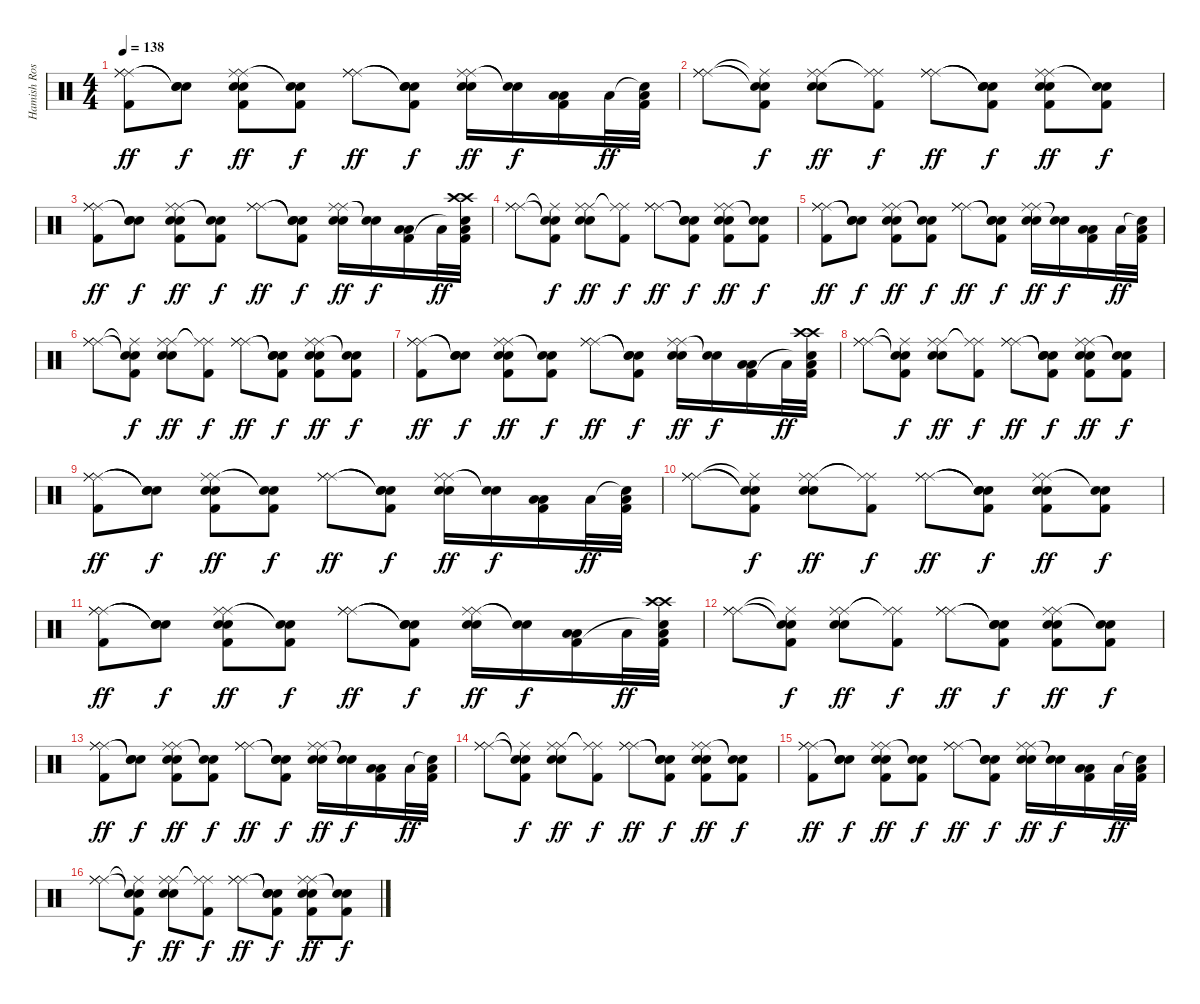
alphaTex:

\track ("Hamish Rosser" "Hamish Ros") {instrument percussion}
\staff {score}
\articulation defaults
\ts (4 4)
\tempo 138
\clef neutral
\ks c
("Ride (middle)" "Ride (middle)" "Ride (middle)" "Kick (hit) 2").8{dy ff} ("Snare (hit)"{t} "Snare (hit)"{t} "Snare (hit)"{t}).8{dy f} ("Ride (middle)" "Ride (middle)" "Snare (hit) 2" "Snare (hit) 2" "Kick (hit) 2").8{dy ff} ("Snare (hit)"{t} "Snare (hit)"{t} "Kick (hit) 2").8{dy f} ("Ride (middle)" "Ride (middle)" "Ride (middle)").8{dy ff} ("Snare (hit)"{t} "Snare (hit)"{t} "Snare (hit) 2"{t} "Kick (hit) 2").8{dy f} ("Ride (middle)" "Ride (middle)" "Snare (hit) 2" "Snare (hit) 2").16{dy ff} ("Snare (hit)"{t} "Snare (hit)"{t}).16{dy f} ("Low Tom (hit)" "Low Tom (hit)" "Kick (hit) 2").16 "Low Tom (hit)".32{dy ff} ("Snare (hit)"{t} "Low Tom (hit)" "Kick (hit) 2").32 |
("Ride (middle)" "Ride (middle)" "Ride (middle)").8 ("Snare (hit)"{t} "Snare (hit)"{t} "Ride (middle)"{t} "Kick (hit) 2").8{dy f} ("Ride (middle)" "Ride (middle)" "Snare (hit) 2" "Snare (hit) 2").8{dy ff} ("Ride (middle)"{t} "Ride (middle)"{t} "Kick (hit) 2").8{dy f} ("Ride (middle)" "Ride (middle)" "Ride (middle)").8{dy ff} ("Snare (hit)"{t} "Snare (hit)"{t} "Snare (hit) 2"{t} "Kick (hit) 2").8{dy f} ("Ride (middle)" "Ride (middle)" "Snare (hit) 2" "Snare (hit) 2" "Kick (hit) 2").8{dy ff} ("Snare (hit)"{t} "Snare (hit)"{t} "Kick (hit) 2").8{dy f} |
("Ride (middle)" "Ride (middle)" "Ride (middle)" "Kick (hit) 2").8{dy ff} ("Snare (hit)"{t} "Snare (hit)"{t} "Snare (hit)"{t}).8{dy f} ("Ride (middle)" "Ride (middle)" "Snare (hit) 2" "Snare (hit) 2" "Kick (hit) 2").8{dy ff} ("Snare (hit)"{t} "Snare (hit)"{t} "Kick (hit) 2").8{dy f} ("Ride (middle)" "Ride (middle)" "Ride (middle)").8{dy ff} ("Snare (hit)"{t} "Snare (hit)"{t} "Snare (hit) 2"{t} "Kick (hit) 2").8{dy f} ("Ride (middle)" "Ride (middle)" "Snare (hit) 2" "Snare (hit) 2").16{dy ff} ("Snare (hit)"{t} "Snare (hit)"{t}).16{dy f} ("Low Tom (hit)" "Low Tom (hit)" "Kick (hit) 2").16 "Low Tom (hit)".32{dy ff} ("Crash high (hit)" "Crash high (hit)" "Snare (hit)"{t} "Low Tom (hit)" "Kick (hit) 2").32 |
("Ride (middle)" "Ride (middle)" "Ride (middle)").8 ("Snare (hit)"{t} "Snare (hit)"{t} "Ride (middle)"{t} "Kick (hit) 2").8{dy f} ("Ride (middle)" "Ride (middle)" "Snare (hit) 2" "Snare (hit) 2").8{dy ff} ("Ride (middle)"{t} "Ride (middle)"{t} "Kick (hit) 2").8{dy f} ("Ride (middle)" "Ride (middle)" "Ride (middle)").8{dy ff} ("Snare (hit)"{t} "Snare (hit)"{t} "Snare (hit) 2"{t} "Kick (hit) 2").8{dy f} ("Ride (middle)" "Ride (middle)" "Snare (hit) 2" "Snare (hit) 2" "Kick (hit) 2").8{dy ff} ("Snare (hit)"{t} "Snare (hit)"{t} "Kick (hit) 2").8{dy f} |
("Ride (middle)" "Ride (middle)" "Ride (middle)" "Kick (hit) 2").8{dy ff} ("Snare (hit)"{t} "Snare (hit)"{t} "Snare (hit)"{t}).8{dy f} ("Ride (middle)" "Ride (middle)" "Snare (hit) 2" "Snare (hit) 2" "Kick (hit) 2").8{dy ff} ("Snare (hit)"{t} "Snare (hit)"{t} "Kick (hit) 2").8{dy f} ("Ride (middle)" "Ride (middle)" "Ride (middle)").8{dy ff} ("Snare (hit)"{t} "Snare (hit)"{t} "Snare (hit) 2"{t} "Kick (hit) 2").8{dy f} ("Ride (middle)" "Ride (middle)" "Snare (hit) 2" "Snare (hit) 2").16{dy ff} ("Snare (hit)"{t} "Snare (hit)"{t}).16{dy f} ("Low Tom (hit)" "Low Tom (hit)" "Kick (hit) 2").16 "Low Tom (hit)".32{dy ff} ("Snare (hit)"{t} "Low Tom (hit)" "Kick (hit) 2").32 |
("Ride (middle)" "Ride (middle)" "Ride (middle)").8 ("Snare (hit)"{t} "Snare (hit)"{t} "Ride (middle)"{t} "Kick (hit) 2").8{dy f} ("Ride (middle)" "Ride (middle)" "Snare (hit) 2" "Snare (hit) 2").8{dy ff} ("Ride (middle)"{t} "Ride (middle)"{t} "Kick (hit) 2").8{dy f} ("Ride (middle)" "Ride (middle)" "Ride (middle)").8{dy ff} ("Snare (hit)"{t} "Snare (hit)"{t} "Snare (hit) 2"{t} "Kick (hit) 2").8{dy f} ("Ride (middle)" "Ride (middle)" "Snare (hit) 2" "Snare (hit) 2" "Kick (hit) 2").8{dy ff} ("Snare (hit)"{t} "Snare (hit)"{t} "Kick (hit) 2").8{dy f} |
("Ride (middle)" "Ride (middle)" "Ride (middle)" "Kick (hit) 2").8{dy ff} ("Snare (hit)"{t} "Snare (hit)"{t} "Snare (hit)"{t}).8{dy f} ("Ride (middle)" "Ride (middle)" "Snare (hit) 2" "Snare (hit) 2" "Kick (hit) 2").8{dy ff} ("Snare (hit)"{t} "Snare (hit)"{t} "Kick (hit) 2").8{dy f} ("Ride (middle)" "Ride (middle)" "Ride (middle)").8{dy ff} ("Snare (hit)"{t} "Snare (hit)"{t} "Snare (hit) 2"{t} "Kick (hit) 2").8{dy f} ("Ride (middle)" "Ride (middle)" "Snare (hit) 2" "Snare (hit) 2").16{dy ff} ("Snare (hit)"{t} "Snare (hit)"{t}).16{dy f} ("Low Tom (hit)" "Low Tom (hit)" "Kick (hit) 2").16 "Low Tom (hit)".32{dy ff} ("Crash high (hit)" "Crash high (hit)" "Snare (hit)"{t} "Low Tom (hit)" "Kick (hit) 2").32 |
("Ride (middle)" "Ride (middle)" "Ride (middle)").8 ("Snare (hit)"{t} "Snare (hit)"{t} "Ride (middle)"{t} "Kick (hit) 2").8{dy f} ("Ride (middle)" "Ride (middle)" "Snare (hit) 2" "Snare (hit) 2").8{dy ff} ("Ride (middle)"{t} "Ride (middle)"{t} "Kick (hit) 2").8{dy f} ("Ride (middle)" "Ride (middle)" "Ride (middle)").8{dy ff} ("Snare (hit)"{t} "Snare (hit)"{t} "Snare (hit) 2"{t} "Kick (hit) 2").8{dy f} ("Ride (middle)" "Ride (middle)" "Snare (hit) 2" "Snare (hit) 2" "Kick (hit) 2").8{dy ff} ("Snare (hit)"{t} "Snare (hit)"{t} "Kick (hit) 2").8{dy f} |
("Ride (middle)" "Ride (middle)" "Ride (middle)" "Kick (hit) 2").8{dy ff} ("Snare (hit)"{t} "Snare (hit)"{t} "Snare (hit)"{t}).8{dy f} ("Ride (middle)" "Ride (middle)" "Snare (hit) 2" "Snare (hit) 2" "Kick (hit) 2").8{dy ff} ("Snare (hit)"{t} "Snare (hit)"{t} "Kick (hit) 2").8{dy f} ("Ride (middle)" "Ride (middle)" "Ride (middle)").8{dy ff} ("Snare (hit)"{t} "Snare (hit)"{t} "Snare (hit) 2"{t} "Kick (hit) 2").8{dy f} ("Ride (middle)" "Ride (middle)" "Snare (hit) 2" "Snare (hit) 2").16{dy ff} ("Snare (hit)"{t} "Snare (hit)"{t}).16{dy f} ("Low Tom (hit)" "Low Tom (hit)" "Kick (hit) 2").16 "Low Tom (hit)".32{dy ff} ("Snare (hit)"{t} "Low Tom (hit)" "Kick (hit) 2").32 |
("Ride (middle)" "Ride (middle)" "Ride (middle)").8 ("Snare (hit)"{t} "Snare (hit)"{t} "Ride (middle)"{t} "Kick (hit) 2").8{dy f} ("Ride (middle)" "Ride (middle)" "Snare (hit) 2" "Snare (hit) 2").8{dy ff} ("Ride (middle)"{t} "Ride (middle)"{t} "Kick (hit) 2").8{dy f} ("Ride (middle)" "Ride (middle)" "Ride (middle)").8{dy ff} ("Snare (hit)"{t} "Snare (hit)"{t} "Snare (hit) 2"{t} "Kick (hit) 2").8{dy f} ("Ride (middle)" "Ride (middle)" "Snare (hit) 2" "Snare (hit) 2" "Kick (hit) 2").8{dy ff} ("Snare (hit)"{t} "Snare (hit)"{t} "Kick (hit) 2").8{dy f} |
("Ride (middle)" "Ride (middle)" "Ride (middle)" "Kick (hit) 2").8{dy ff} ("Snare (hit)"{t} "Snare (hit)"{t} "Snare (hit)"{t}).8{dy f} ("Ride (middle)" "Ride (middle)" "Snare (hit) 2" "Snare (hit) 2" "Kick (hit) 2").8{dy ff} ("Snare (hit)"{t} "Snare (hit)"{t} "Kick (hit) 2").8{dy f} ("Ride (middle)" "Ride (middle)" "Ride (middle)").8{dy ff} ("Snare (hit)"{t} "Snare (hit)"{t} "Snare (hit) 2"{t} "Kick (hit) 2").8{dy f} ("Ride (middle)" "Ride (middle)" "Snare (hit) 2" "Snare (hit) 2").16{dy ff} ("Snare (hit)"{t} "Snare (hit)"{t}).16{dy f} ("Low Tom (hit)" "Low Tom (hit)" "Kick (hit) 2").16 "Low Tom (hit)".32{dy ff} ("Crash high (hit)" "Crash high (hit)" "Snare (hit)"{t} "Low Tom (hit)" "Kick (hit) 2").32 |
("Ride (middle)" "Ride (middle)" "Ride (middle)").8 ("Snare (hit)"{t} "Snare (hit)"{t} "Ride (middle)"{t} "Kick (hit) 2").8{dy f} ("Ride (middle)" "Ride (middle)" "Snare (hit) 2" "Snare (hit) 2").8{dy ff} ("Ride (middle)"{t} "Ride (middle)"{t} "Kick (hit) 2").8{dy f} ("Ride (middle)" "Ride (middle)" "Ride (middle)").8{dy ff} ("Snare (hit)"{t} "Snare (hit)"{t} "Snare (hit) 2"{t} "Kick (hit) 2").8{dy f} ("Ride (middle)" "Ride (middle)" "Snare (hit) 2" "Snare (hit) 2" "Kick (hit) 2").8{dy ff} ("Snare (hit)"{t} "Snare (hit)"{t} "Kick (hit) 2").8{dy f} |
("Ride (middle)" "Ride (middle)" "Ride (middle)" "Kick (hit) 2").8{dy ff} ("Snare (hit)"{t} "Snare (hit)"{t} "Snare (hit)"{t}).8{dy f} ("Ride (middle)" "Ride (middle)" "Snare (hit) 2" "Snare (hit) 2" "Kick (hit) 2").8{dy ff} ("Snare (hit)"{t} "Snare (hit)"{t} "Kick (hit) 2").8{dy f} ("Ride (middle)" "Ride (middle)" "Ride (middle)").8{dy ff} ("Snare (hit)"{t} "Snare (hit)"{t} "Snare (hit) 2"{t} "Kick (hit) 2").8{dy f} ("Ride (middle)" "Ride (middle)" "Snare (hit) 2" "Snare (hit) 2").16{dy ff} ("Snare (hit)"{t} "Snare (hit)"{t}).16{dy f} ("Low Tom (hit)" "Low Tom (hit)" "Kick (hit) 2").16 "Low Tom (hit)".32{dy ff} ("Snare (hit)"{t} "Low Tom (hit)" "Kick (hit) 2").32 |
("Ride (middle)" "Ride (middle)" "Ride (middle)").8 ("Snare (hit)"{t} "Snare (hit)"{t} "Ride (middle)"{t} "Kick (hit) 2").8{dy f} ("Ride (middle)" "Ride (middle)" "Snare (hit) 2" "Snare (hit) 2").8{dy ff} ("Ride (middle)"{t} "Ride (middle)"{t} "Kick (hit) 2").8{dy f} ("Ride (middle)" "Ride (middle)" "Ride (middle)").8{dy ff} ("Snare (hit)"{t} "Snare (hit)"{t} "Snare (hit) 2"{t} "Kick (hit) 2").8{dy f} ("Ride (middle)" "Ride (middle)" "Snare (hit) 2" "Snare (hit) 2" "Kick (hit) 2").8{dy ff} ("Snare (hit)"{t} "Snare (hit)"{t} "Kick (hit) 2").8{dy f} |
("Ride (middle)" "Ride (middle)" "Ride (middle)" "Kick (hit) 2").8{dy ff} ("Snare (hit)"{t} "Snare (hit)"{t} "Snare (hit)"{t}).8{dy f} ("Ride (middle)" "Ride (middle)" "Snare (hit) 2" "Snare (hit) 2" "Kick (hit) 2").8{dy ff} ("Snare (hit)"{t} "Snare (hit)"{t} "Kick (hit) 2").8{dy f} ("Ride (middle)" "Ride (middle)" "Ride (middle)").8{dy ff} ("Snare (hit)"{t} "Snare (hit)"{t} "Snare (hit) 2"{t} "Kick (hit) 2").8{dy f} ("Ride (middle)" "Ride (middle)" "Snare (hit) 2" "Snare (hit) 2").16{dy ff} ("Snare (hit)"{t} "Snare (hit)"{t}).16{dy f} ("Low Tom (hit)" "Low Tom (hit)" "Kick (hit) 2").16 "Low Tom (hit)".32{dy ff} ("Snare (hit)"{t} "Low Tom (hit)" "Kick (hit) 2").32 |
("Ride (middle)" "Ride (middle)" "Ride (middle)").8 ("Snare (hit)"{t} "Snare (hit)"{t} "Ride (middle)"{t} "Kick (hit) 2").8{dy f} ("Ride (middle)" "Ride (middle)" "Snare (hit) 2" "Snare (hit) 2").8{dy ff} ("Ride (middle)"{t} "Ride (middle)"{t} "Kick (hit) 2").8{dy f} ("Ride (middle)" "Ride (middle)" "Ride (middle)").8{dy ff} ("Snare (hit)"{t} "Snare (hit)"{t} "Snare (hit) 2"{t} "Kick (hit) 2").8{dy f} ("Ride (middle)" "Ride (middle)" "Snare (hit) 2" "Snare (hit) 2" "Kick (hit) 2").8{dy ff} ("Snare (hit)"{t} "Snare (hit)"{t} "Kick (hit) 2").8{dy f}
